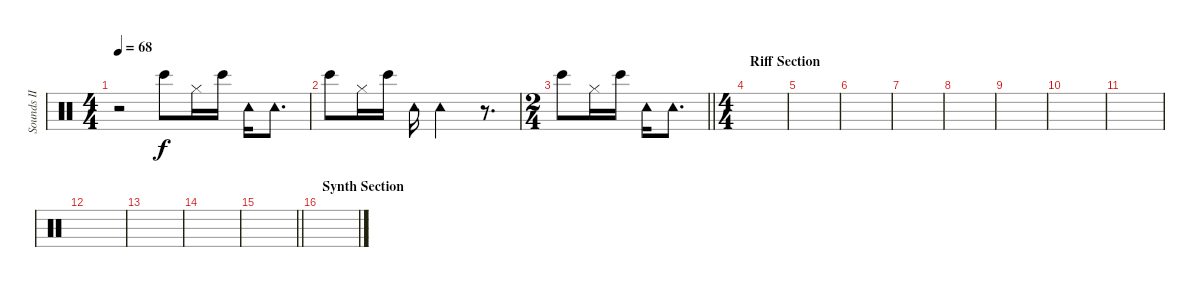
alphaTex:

\track ("Sounds II (Generic)" "Sounds II ") {instrument percussion}
\staff {score}
\articulation defaults
\ts (4 4)
\tempo 68
\clef neutral
\ks c
r.2{dy f} "Bongo High (hit)".8 "Hi-Hat (closed)".16 "Bongo High (hit)".16 "Tambourine (hit)".16 "Tambourine (hit)".8{d} |
"Bongo High (hit)".8 "Hi-Hat (closed)".16 "Bongo High (hit)".16 "Tambourine (hit)".16 "Tambourine (hit)".2 r.8{d} |
\ts (2 4)
\barLineRight lightlight "Bongo High (hit)".8 "Hi-Hat (closed)".16 "Bongo High (hit)".16 "Tambourine (hit)".16 "Tambourine (hit)".8{d}
|
\ts (4 4)
\section ("" "Riff Section")
|
|
|
|
|
|
|
|
|
|
|
\barLineRight lightlight
|
\section ("" "Synth Section")
